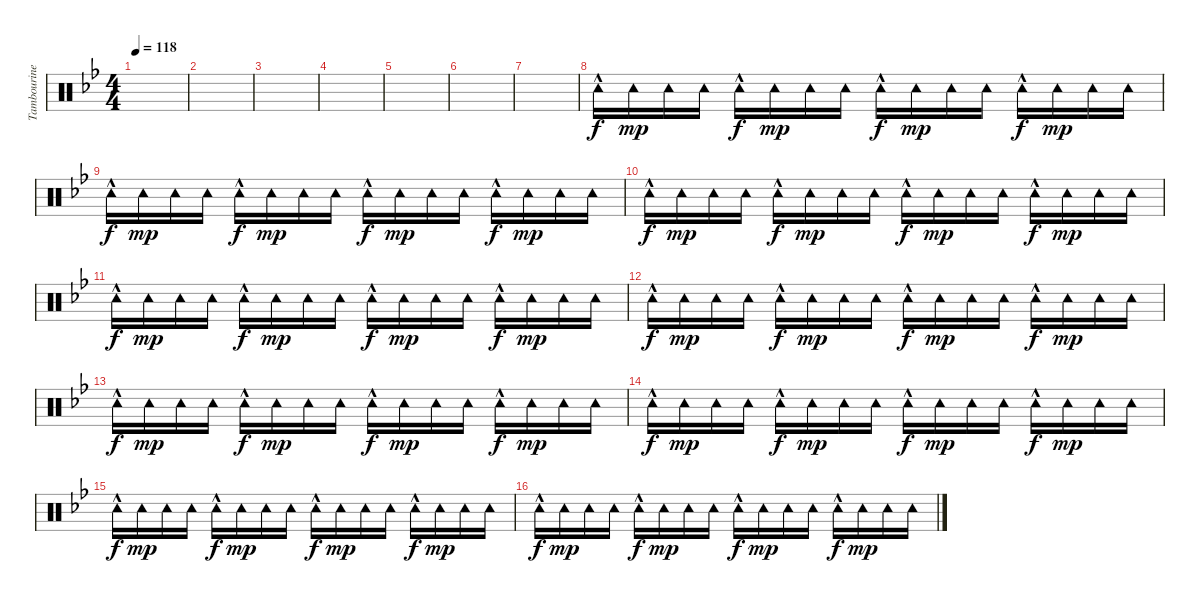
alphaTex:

\track ("Tambourine" "Tambourine") {instrument percussion}
\staff {score}
\articulation defaults
\ts (4 4)
\tempo 118
\clef neutral
\ks bb
|
|
|
|
|
|
|
"Tambourine (hit)"{hac}.16{dy f} "Tambourine (hit)".16{dy mp} "Tambourine (hit)".16 "Tambourine (hit)".16 "Tambourine (hit)"{hac}.16{dy f} "Tambourine (hit)".16{dy mp} "Tambourine (hit)".16 "Tambourine (hit)".16 "Tambourine (hit)"{hac}.16{dy f} "Tambourine (hit)".16{dy mp} "Tambourine (hit)".16 "Tambourine (hit)".16 "Tambourine (hit)"{hac}.16{dy f} "Tambourine (hit)".16{dy mp} "Tambourine (hit)".16 "Tambourine (hit)".16 |
"Tambourine (hit)"{hac}.16{dy f} "Tambourine (hit)".16{dy mp} "Tambourine (hit)".16 "Tambourine (hit)".16 "Tambourine (hit)"{hac}.16{dy f} "Tambourine (hit)".16{dy mp} "Tambourine (hit)".16 "Tambourine (hit)".16 "Tambourine (hit)"{hac}.16{dy f} "Tambourine (hit)".16{dy mp} "Tambourine (hit)".16 "Tambourine (hit)".16 "Tambourine (hit)"{hac}.16{dy f} "Tambourine (hit)".16{dy mp} "Tambourine (hit)".16 "Tambourine (hit)".16 |
"Tambourine (hit)"{hac}.16{dy f} "Tambourine (hit)".16{dy mp} "Tambourine (hit)".16 "Tambourine (hit)".16 "Tambourine (hit)"{hac}.16{dy f} "Tambourine (hit)".16{dy mp} "Tambourine (hit)".16 "Tambourine (hit)".16 "Tambourine (hit)"{hac}.16{dy f} "Tambourine (hit)".16{dy mp} "Tambourine (hit)".16 "Tambourine (hit)".16 "Tambourine (hit)"{hac}.16{dy f} "Tambourine (hit)".16{dy mp} "Tambourine (hit)".16 "Tambourine (hit)".16 |
"Tambourine (hit)"{hac}.16{dy f} "Tambourine (hit)".16{dy mp} "Tambourine (hit)".16 "Tambourine (hit)".16 "Tambourine (hit)"{hac}.16{dy f} "Tambourine (hit)".16{dy mp} "Tambourine (hit)".16 "Tambourine (hit)".16 "Tambourine (hit)"{hac}.16{dy f} "Tambourine (hit)".16{dy mp} "Tambourine (hit)".16 "Tambourine (hit)".16 "Tambourine (hit)"{hac}.16{dy f} "Tambourine (hit)".16{dy mp} "Tambourine (hit)".16 "Tambourine (hit)".16 |
"Tambourine (hit)"{hac}.16{dy f} "Tambourine (hit)".16{dy mp} "Tambourine (hit)".16 "Tambourine (hit)".16 "Tambourine (hit)"{hac}.16{dy f} "Tambourine (hit)".16{dy mp} "Tambourine (hit)".16 "Tambourine (hit)".16 "Tambourine (hit)"{hac}.16{dy f} "Tambourine (hit)".16{dy mp} "Tambourine (hit)".16 "Tambourine (hit)".16 "Tambourine (hit)"{hac}.16{dy f} "Tambourine (hit)".16{dy mp} "Tambourine (hit)".16 "Tambourine (hit)".16 |
"Tambourine (hit)"{hac}.16{dy f} "Tambourine (hit)".16{dy mp} "Tambourine (hit)".16 "Tambourine (hit)".16 "Tambourine (hit)"{hac}.16{dy f} "Tambourine (hit)".16{dy mp} "Tambourine (hit)".16 "Tambourine (hit)".16 "Tambourine (hit)"{hac}.16{dy f} "Tambourine (hit)".16{dy mp} "Tambourine (hit)".16 "Tambourine (hit)".16 "Tambourine (hit)"{hac}.16{dy f} "Tambourine (hit)".16{dy mp} "Tambourine (hit)".16 "Tambourine (hit)".16 |
"Tambourine (hit)"{hac}.16{dy f} "Tambourine (hit)".16{dy mp} "Tambourine (hit)".16 "Tambourine (hit)".16 "Tambourine (hit)"{hac}.16{dy f} "Tambourine (hit)".16{dy mp} "Tambourine (hit)".16 "Tambourine (hit)".16 "Tambourine (hit)"{hac}.16{dy f} "Tambourine (hit)".16{dy mp} "Tambourine (hit)".16 "Tambourine (hit)".16 "Tambourine (hit)"{hac}.16{dy f} "Tambourine (hit)".16{dy mp} "Tambourine (hit)".16 "Tambourine (hit)".16 |
"Tambourine (hit)"{hac}.16{dy f} "Tambourine (hit)".16{dy mp} "Tambourine (hit)".16 "Tambourine (hit)".16 "Tambourine (hit)"{hac}.16{dy f} "Tambourine (hit)".16{dy mp} "Tambourine (hit)".16 "Tambourine (hit)".16 "Tambourine (hit)"{hac}.16{dy f} "Tambourine (hit)".16{dy mp} "Tambourine (hit)".16 "Tambourine (hit)".16 "Tambourine (hit)"{hac}.16{dy f} "Tambourine (hit)".16{dy mp} "Tambourine (hit)".16 "Tambourine (hit)".16 |
"Tambourine (hit)"{hac}.16{dy f} "Tambourine (hit)".16{dy mp} "Tambourine (hit)".16 "Tambourine (hit)".16 "Tambourine (hit)"{hac}.16{dy f} "Tambourine (hit)".16{dy mp} "Tambourine (hit)".16 "Tambourine (hit)".16 "Tambourine (hit)"{hac}.16{dy f} "Tambourine (hit)".16{dy mp} "Tambourine (hit)".16 "Tambourine (hit)".16 "Tambourine (hit)"{hac}.16{dy f} "Tambourine (hit)".16{dy mp} "Tambourine (hit)".16 "Tambourine (hit)".16
